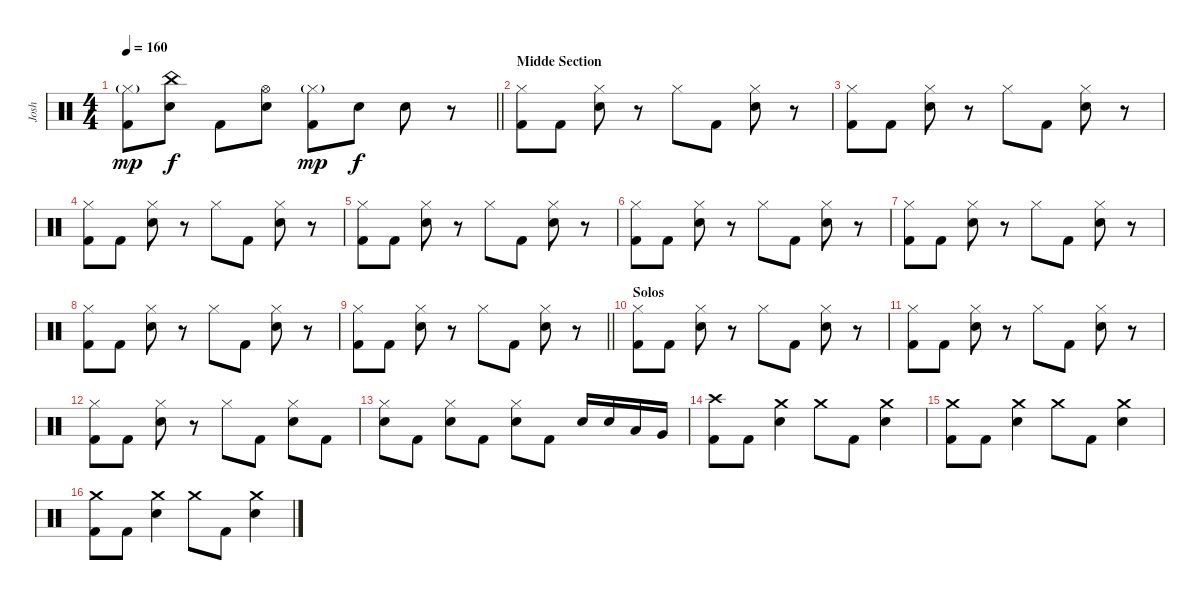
\track ("Josh" "Josh") {instrument percussion}
\staff {score}
\articulation defaults
\ts (4 4)
\tempo 160
\clef neutral
\barLineRight lightlight
\ks c
("Hi-Hat (closed)"{g} "Kick (hit) 2").8{dy mp} ("China (hit)" "Electric Snare (hit)").8{dy f} "Kick (hit) 2".8 ("Hi-Hat (open)" "Electric Snare (hit)").8 ("Hi-Hat (closed)"{g} "Kick (hit) 2").8{dy mp} "Electric Snare (hit)".8{dy f} "Electric Snare (hit)".8 r.8 |
\section ("" "Midde Section")
("Hi-Hat (closed)" "Kick (hit) 2").8 "Kick (hit) 2".8 ("Hi-Hat (closed)" "Snare (hit) 2").8 r.8 "Hi-Hat (closed)".8 "Kick (hit) 2".8 ("Hi-Hat (closed)" "Snare (hit) 2").8 r.8 |
("Hi-Hat (closed)" "Kick (hit) 2").8 "Kick (hit) 2".8 ("Hi-Hat (closed)" "Snare (hit) 2").8 r.8 "Hi-Hat (closed)".8 "Kick (hit) 2".8 ("Hi-Hat (closed)" "Snare (hit) 2").8 r.8 |
("Hi-Hat (closed)" "Kick (hit) 2").8 "Kick (hit) 2".8 ("Hi-Hat (closed)" "Snare (hit) 2").8 r.8 "Hi-Hat (closed)".8 "Kick (hit) 2".8 ("Hi-Hat (closed)" "Snare (hit) 2").8 r.8 |
("Hi-Hat (closed)" "Kick (hit) 2").8 "Kick (hit) 2".8 ("Hi-Hat (closed)" "Snare (hit) 2").8 r.8 "Hi-Hat (closed)".8 "Kick (hit) 2".8 ("Hi-Hat (closed)" "Snare (hit) 2").8 r.8 |
("Hi-Hat (closed)" "Kick (hit) 2").8 "Kick (hit) 2".8 ("Hi-Hat (closed)" "Snare (hit) 2").8 r.8 "Hi-Hat (closed)".8 "Kick (hit) 2".8 ("Hi-Hat (closed)" "Snare (hit) 2").8 r.8 |
("Hi-Hat (closed)" "Kick (hit) 2").8 "Kick (hit) 2".8 ("Hi-Hat (closed)" "Snare (hit) 2").8 r.8 "Hi-Hat (closed)".8 "Kick (hit) 2".8 ("Hi-Hat (closed)" "Snare (hit) 2").8 r.8 |
("Hi-Hat (closed)" "Kick (hit) 2").8 "Kick (hit) 2".8 ("Hi-Hat (closed)" "Snare (hit) 2").8 r.8 "Hi-Hat (closed)".8 "Kick (hit) 2".8 ("Hi-Hat (closed)" "Snare (hit) 2").8 r.8 |
\barLineRight lightlight
("Hi-Hat (closed)" "Kick (hit) 2").8 "Kick (hit) 2".8 ("Hi-Hat (closed)" "Snare (hit) 2").8 r.8 "Hi-Hat (closed)".8 "Kick (hit) 2".8 ("Hi-Hat (closed)" "Snare (hit) 2").8 r.8 |
\section ("" "Solos")
("Hi-Hat (closed)" "Kick (hit) 2").8 "Kick (hit) 2".8 ("Hi-Hat (closed)" "Snare (hit) 2").8 r.8 "Hi-Hat (closed)".8 "Kick (hit) 2".8 ("Hi-Hat (closed)" "Snare (hit) 2").8 r.8 |
("Hi-Hat (closed)" "Kick (hit) 2").8 "Kick (hit) 2".8 ("Hi-Hat (closed)" "Snare (hit) 2").8 r.8 "Hi-Hat (closed)".8 "Kick (hit) 2".8 ("Hi-Hat (closed)" "Snare (hit) 2").8 r.8 |
("Hi-Hat (closed)" "Kick (hit) 2").8 "Kick (hit) 2".8 ("Hi-Hat (closed)" "Snare (hit) 2").8 r.8 "Hi-Hat (closed)".8 "Kick (hit) 2".8 ("Hi-Hat (closed)" "Snare (hit) 2").8 "Kick (hit) 2".8 |
("Hi-Hat (closed)" "Electric Snare (hit)").8 "Kick (hit) 2".8 ("Hi-Hat (closed)" "Electric Snare (hit)").8 "Kick (hit) 2".8 ("Hi-Hat (closed)" "Electric Snare (hit)").8 "Kick (hit) 2".8 "Electric Snare (hit)".16 "Electric Snare (hit)".16 "Low Tom (hit)".16 "Very Low Tom (hit)".16 |
("Crash high (hit)" "Kick (hit) 2").8 "Kick (hit) 2".8 ("Crash medium (hit)" "Electric Snare (hit)").4 "Crash medium (hit)".8 "Kick (hit) 2".8 ("Crash medium (hit)" "Electric Snare (hit)").4 |
("Crash medium (hit)" "Kick (hit) 2").8 "Kick (hit) 2".8 ("Crash medium (hit)" "Electric Snare (hit)").4 "Crash medium (hit)".8 "Kick (hit) 2".8 ("Crash medium (hit)" "Electric Snare (hit)").4 |
("Crash medium (hit)" "Kick (hit) 2").8 "Kick (hit) 2".8 ("Crash medium (hit)" "Electric Snare (hit)").4 "Crash medium (hit)".8 "Kick (hit) 2".8 ("Crash medium (hit)" "Electric Snare (hit)").4
